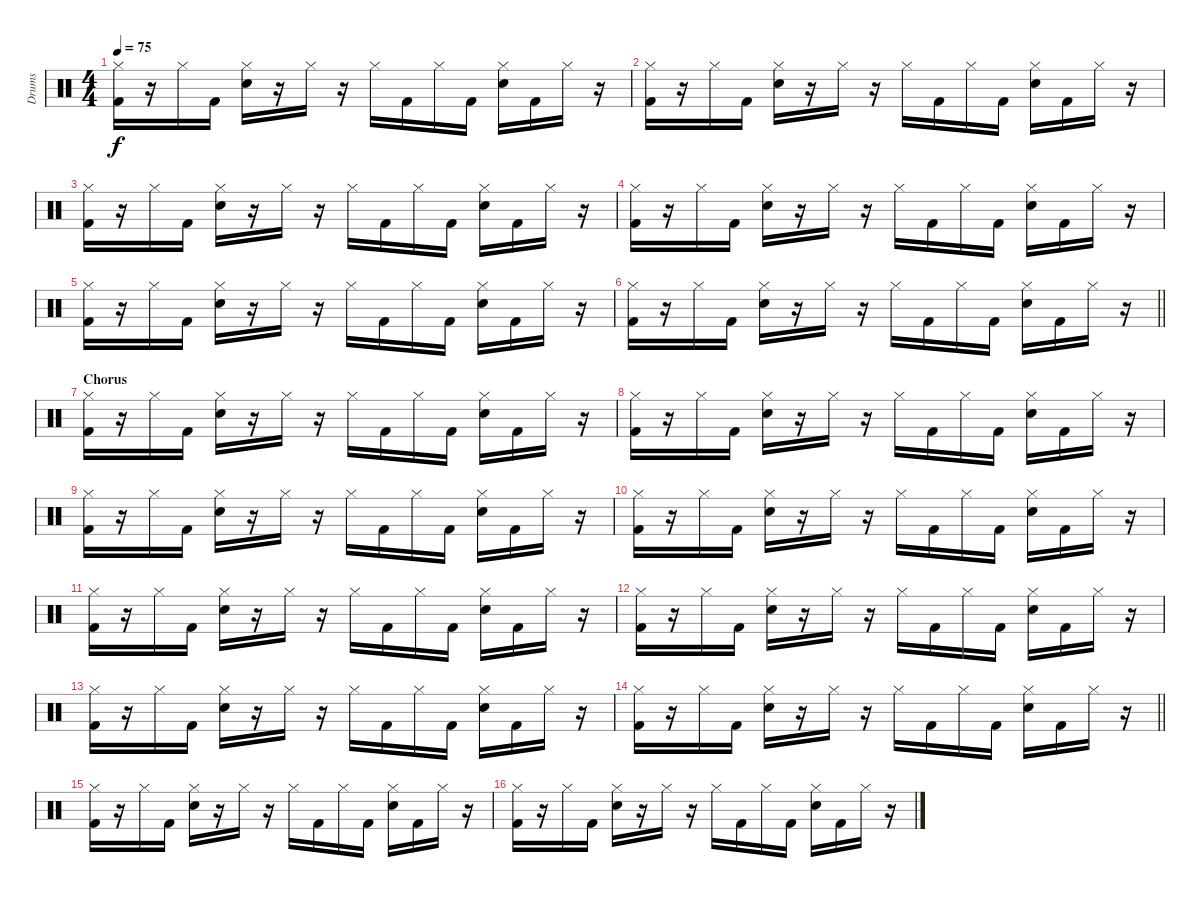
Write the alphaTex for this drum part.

\track ("Drums" "Drums") {instrument percussion}
\staff {score}
\articulation defaults
\ts (4 4)
\tempo 75
\clef neutral
\ks c
("Hi-Hat (closed)" "Kick (hit) 2").16{dy f} r.16 "Hi-Hat (closed)".16 "Kick (hit) 2".16 ("Hi-Hat (closed)" "Electric Snare (hit)").16 r.16 "Hi-Hat (closed)".16 r.16 "Hi-Hat (closed)".16 "Kick (hit) 2".16 "Hi-Hat (closed)".16 "Kick (hit) 2".16 ("Hi-Hat (closed)" "Electric Snare (hit)").16 "Kick (hit) 2".16 "Hi-Hat (closed)".16 r.16 |
("Hi-Hat (closed)" "Kick (hit) 2").16 r.16 "Hi-Hat (closed)".16 "Kick (hit) 2".16 ("Hi-Hat (closed)" "Electric Snare (hit)").16 r.16 "Hi-Hat (closed)".16 r.16 "Hi-Hat (closed)".16 "Kick (hit) 2".16 "Hi-Hat (closed)".16 "Kick (hit) 2".16 ("Hi-Hat (closed)" "Electric Snare (hit)").16 "Kick (hit) 2".16 "Hi-Hat (closed)".16 r.16 |
("Hi-Hat (closed)" "Kick (hit) 2").16 r.16 "Hi-Hat (closed)".16 "Kick (hit) 2".16 ("Hi-Hat (closed)" "Electric Snare (hit)").16 r.16 "Hi-Hat (closed)".16 r.16 "Hi-Hat (closed)".16 "Kick (hit) 2".16 "Hi-Hat (closed)".16 "Kick (hit) 2".16 ("Hi-Hat (closed)" "Electric Snare (hit)").16 "Kick (hit) 2".16 "Hi-Hat (closed)".16 r.16 |
("Hi-Hat (closed)" "Kick (hit) 2").16 r.16 "Hi-Hat (closed)".16 "Kick (hit) 2".16 ("Hi-Hat (closed)" "Electric Snare (hit)").16 r.16 "Hi-Hat (closed)".16 r.16 "Hi-Hat (closed)".16 "Kick (hit) 2".16 "Hi-Hat (closed)".16 "Kick (hit) 2".16 ("Hi-Hat (closed)" "Electric Snare (hit)").16 "Kick (hit) 2".16 "Hi-Hat (closed)".16 r.16 |
("Hi-Hat (closed)" "Kick (hit) 2").16 r.16 "Hi-Hat (closed)".16 "Kick (hit) 2".16 ("Hi-Hat (closed)" "Electric Snare (hit)").16 r.16 "Hi-Hat (closed)".16 r.16 "Hi-Hat (closed)".16 "Kick (hit) 2".16 "Hi-Hat (closed)".16 "Kick (hit) 2".16 ("Hi-Hat (closed)" "Electric Snare (hit)").16 "Kick (hit) 2".16 "Hi-Hat (closed)".16 r.16 |
\barLineRight lightlight
("Hi-Hat (closed)" "Kick (hit) 2").16 r.16 "Hi-Hat (closed)".16 "Kick (hit) 2".16 ("Hi-Hat (closed)" "Electric Snare (hit)").16 r.16 "Hi-Hat (closed)".16 r.16 "Hi-Hat (closed)".16 "Kick (hit) 2".16 "Hi-Hat (closed)".16 "Kick (hit) 2".16 ("Hi-Hat (closed)" "Electric Snare (hit)").16 "Kick (hit) 2".16 "Hi-Hat (closed)".16 r.16 |
\section ("" "Chorus")
("Hi-Hat (closed)" "Kick (hit) 2").16 r.16 "Hi-Hat (closed)".16 "Kick (hit) 2".16 ("Hi-Hat (closed)" "Electric Snare (hit)").16 r.16 "Hi-Hat (closed)".16 r.16 "Hi-Hat (closed)".16 "Kick (hit) 2".16 "Hi-Hat (closed)".16 "Kick (hit) 2".16 ("Hi-Hat (closed)" "Electric Snare (hit)").16 "Kick (hit) 2".16 "Hi-Hat (closed)".16 r.16 |
("Hi-Hat (closed)" "Kick (hit) 2").16 r.16 "Hi-Hat (closed)".16 "Kick (hit) 2".16 ("Hi-Hat (closed)" "Electric Snare (hit)").16 r.16 "Hi-Hat (closed)".16 r.16 "Hi-Hat (closed)".16 "Kick (hit) 2".16 "Hi-Hat (closed)".16 "Kick (hit) 2".16 ("Hi-Hat (closed)" "Electric Snare (hit)").16 "Kick (hit) 2".16 "Hi-Hat (closed)".16 r.16 |
("Hi-Hat (closed)" "Kick (hit) 2").16 r.16 "Hi-Hat (closed)".16 "Kick (hit) 2".16 ("Hi-Hat (closed)" "Electric Snare (hit)").16 r.16 "Hi-Hat (closed)".16 r.16 "Hi-Hat (closed)".16 "Kick (hit) 2".16 "Hi-Hat (closed)".16 "Kick (hit) 2".16 ("Hi-Hat (closed)" "Electric Snare (hit)").16 "Kick (hit) 2".16 "Hi-Hat (closed)".16 r.16 |
("Hi-Hat (closed)" "Kick (hit) 2").16 r.16 "Hi-Hat (closed)".16 "Kick (hit) 2".16 ("Hi-Hat (closed)" "Electric Snare (hit)").16 r.16 "Hi-Hat (closed)".16 r.16 "Hi-Hat (closed)".16 "Kick (hit) 2".16 "Hi-Hat (closed)".16 "Kick (hit) 2".16 ("Hi-Hat (closed)" "Electric Snare (hit)").16 "Kick (hit) 2".16 "Hi-Hat (closed)".16 r.16 |
("Hi-Hat (closed)" "Kick (hit) 2").16 r.16 "Hi-Hat (closed)".16 "Kick (hit) 2".16 ("Hi-Hat (closed)" "Electric Snare (hit)").16 r.16 "Hi-Hat (closed)".16 r.16 "Hi-Hat (closed)".16 "Kick (hit) 2".16 "Hi-Hat (closed)".16 "Kick (hit) 2".16 ("Hi-Hat (closed)" "Electric Snare (hit)").16 "Kick (hit) 2".16 "Hi-Hat (closed)".16 r.16 |
("Hi-Hat (closed)" "Kick (hit) 2").16 r.16 "Hi-Hat (closed)".16 "Kick (hit) 2".16 ("Hi-Hat (closed)" "Electric Snare (hit)").16 r.16 "Hi-Hat (closed)".16 r.16 "Hi-Hat (closed)".16 "Kick (hit) 2".16 "Hi-Hat (closed)".16 "Kick (hit) 2".16 ("Hi-Hat (closed)" "Electric Snare (hit)").16 "Kick (hit) 2".16 "Hi-Hat (closed)".16 r.16 |
("Hi-Hat (closed)" "Kick (hit) 2").16 r.16 "Hi-Hat (closed)".16 "Kick (hit) 2".16 ("Hi-Hat (closed)" "Electric Snare (hit)").16 r.16 "Hi-Hat (closed)".16 r.16 "Hi-Hat (closed)".16 "Kick (hit) 2".16 "Hi-Hat (closed)".16 "Kick (hit) 2".16 ("Hi-Hat (closed)" "Electric Snare (hit)").16 "Kick (hit) 2".16 "Hi-Hat (closed)".16 r.16 |
\barLineRight lightlight
("Hi-Hat (closed)" "Kick (hit) 2").16 r.16 "Hi-Hat (closed)".16 "Kick (hit) 2".16 ("Hi-Hat (closed)" "Electric Snare (hit)").16 r.16 "Hi-Hat (closed)".16 r.16 "Hi-Hat (closed)".16 "Kick (hit) 2".16 "Hi-Hat (closed)".16 "Kick (hit) 2".16 ("Hi-Hat (closed)" "Electric Snare (hit)").16 "Kick (hit) 2".16 "Hi-Hat (closed)".16 r.16 |
("Hi-Hat (closed)" "Kick (hit) 2").16 r.16 "Hi-Hat (closed)".16 "Kick (hit) 2".16 ("Hi-Hat (closed)" "Electric Snare (hit)").16 r.16 "Hi-Hat (closed)".16 r.16 "Hi-Hat (closed)".16 "Kick (hit) 2".16 "Hi-Hat (closed)".16 "Kick (hit) 2".16 ("Hi-Hat (closed)" "Electric Snare (hit)").16 "Kick (hit) 2".16 "Hi-Hat (closed)".16 r.16 |
("Hi-Hat (closed)" "Kick (hit) 2").16 r.16 "Hi-Hat (closed)".16 "Kick (hit) 2".16 ("Hi-Hat (closed)" "Electric Snare (hit)").16 r.16 "Hi-Hat (closed)".16 r.16 "Hi-Hat (closed)".16 "Kick (hit) 2".16 "Hi-Hat (closed)".16 "Kick (hit) 2".16 ("Hi-Hat (closed)" "Electric Snare (hit)").16 "Kick (hit) 2".16 "Hi-Hat (closed)".16 r.16
